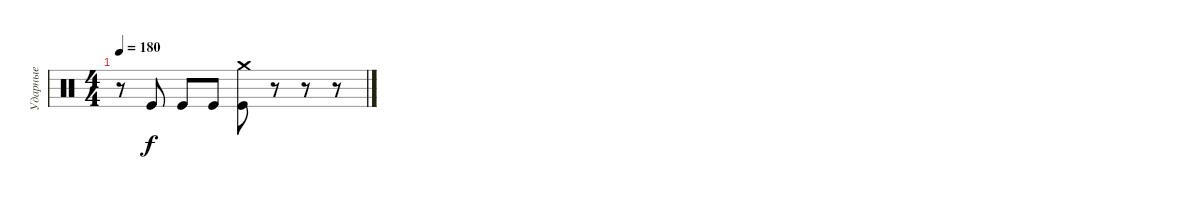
\track ("Ударные" "Ударные") {instrument percussion}
\staff {score}
\articulation defaults
\ts (4 4)
\tempo 180
\clef neutral
\ks c
r.8{dy f} "Kick (hit)".8 "Kick (hit)".8 "Kick (hit)".8 ("Crash medium (hit)" "Kick (hit)").8 r.8 r.8 r.8
